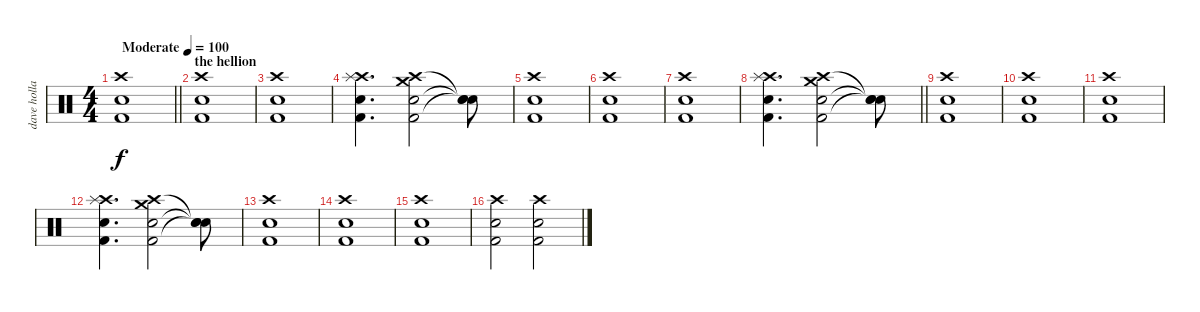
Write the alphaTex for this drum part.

\track ("dave holland" "dave holla") {instrument percussion}
\staff {score}
\articulation defaults
\ts (4 4)
\tempo (100 "Moderate")
\clef neutral
\barLineRight lightlight
\ks c
("Electric Snare (hit)" "Kick (hit) 2" "Crash high (hit)").1{dy f} |
\section ("" "the hellion")
("Electric Snare (hit)" "Kick (hit) 2" "Crash high (hit)").1 |
("Electric Snare (hit)" "Kick (hit) 2" "Crash high (hit)").1 |
("Electric Snare (hit)" "Kick (hit) 2" "Crash high (hit)" "Splash (hit)").4{d} ("Electric Snare (hit)" "Kick (hit) 2" "Crash high (hit)" "Crash medium (hit)").2 ("Snare (hit)"{t} "Snare (hit)"{t} "Snare (hit)"{t}).8 |
("Electric Snare (hit)" "Kick (hit) 2" "Crash high (hit)").1 |
("Electric Snare (hit)" "Kick (hit) 2" "Crash high (hit)").1 |
("Electric Snare (hit)" "Kick (hit) 2" "Crash high (hit)").1 |
\barLineRight lightlight
("Electric Snare (hit)" "Kick (hit) 2" "Crash high (hit)" "Splash (hit)").4{d} ("Electric Snare (hit)" "Kick (hit) 2" "Crash high (hit)" "Crash medium (hit)").2 ("Snare (hit)"{t} "Snare (hit)"{t} "Snare (hit)"{t}).8 |
("Electric Snare (hit)" "Kick (hit) 2" "Crash high (hit)").1 |
("Electric Snare (hit)" "Kick (hit) 2" "Crash high (hit)").1 |
("Electric Snare (hit)" "Kick (hit) 2" "Crash high (hit)").1 |
("Electric Snare (hit)" "Kick (hit) 2" "Crash high (hit)" "Splash (hit)").4{d} ("Electric Snare (hit)" "Kick (hit) 2" "Crash high (hit)" "Crash medium (hit)").2 ("Snare (hit)"{t} "Snare (hit)"{t} "Snare (hit)"{t}).8 |
("Electric Snare (hit)" "Kick (hit) 2" "Crash high (hit)").1 |
("Electric Snare (hit)" "Kick (hit) 2" "Crash high (hit)").1 |
("Electric Snare (hit)" "Kick (hit) 2" "Crash high (hit)").1 |
("Electric Snare (hit)" "Kick (hit) 2" "Crash high (hit)").2 ("Electric Snare (hit)" "Kick (hit) 2" "Crash high (hit)").2
